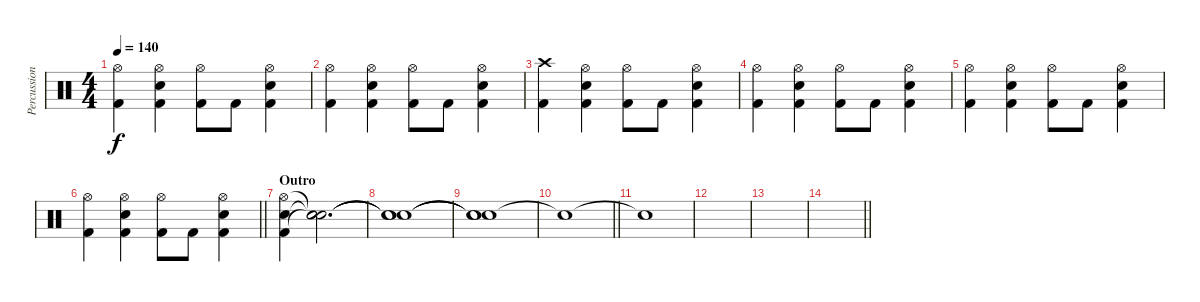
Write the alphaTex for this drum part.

\track ("Percussions" "Percussion") {instrument percussion}
\staff {score}
\articulation defaults
\ts (4 4)
\tempo 140
\clef neutral
\ks c
("Hi-Hat (open)" "Kick (hit) 2").4{dy f} ("Hi-Hat (open)" "Electric Snare (hit)" "Kick (hit) 2").4 ("Hi-Hat (open)" "Kick (hit) 2").8 "Kick (hit) 2".8 ("Hi-Hat (open)" "Electric Snare (hit)" "Kick (hit) 2").4 |
("Hi-Hat (open)" "Kick (hit) 2").4 ("Hi-Hat (open)" "Electric Snare (hit)" "Kick (hit) 2").4 ("Hi-Hat (open)" "Kick (hit) 2").8 "Kick (hit) 2".8 ("Hi-Hat (open)" "Electric Snare (hit)" "Kick (hit) 2").4 |
("Crash high (hit)" "Kick (hit) 2").4 ("Hi-Hat (open)" "Electric Snare (hit)" "Kick (hit) 2").4 ("Hi-Hat (open)" "Kick (hit) 2").8 "Kick (hit) 2".8 ("Hi-Hat (open)" "Electric Snare (hit)" "Kick (hit) 2").4 |
("Hi-Hat (open)" "Kick (hit) 2").4 ("Hi-Hat (open)" "Electric Snare (hit)" "Kick (hit) 2").4 ("Hi-Hat (open)" "Kick (hit) 2").8 "Kick (hit) 2".8 ("Hi-Hat (open)" "Electric Snare (hit)" "Kick (hit) 2").4 |
("Hi-Hat (open)" "Kick (hit) 2").4 ("Hi-Hat (open)" "Electric Snare (hit)" "Kick (hit) 2").4 ("Hi-Hat (open)" "Kick (hit) 2").8 "Kick (hit) 2".8 ("Hi-Hat (open)" "Electric Snare (hit)" "Kick (hit) 2").4 |
\barLineRight lightlight
("Hi-Hat (open)" "Kick (hit) 2").4 ("Hi-Hat (open)" "Electric Snare (hit)" "Kick (hit) 2").4 ("Hi-Hat (open)" "Kick (hit) 2").8 "Kick (hit) 2".8 ("Hi-Hat (open)" "Electric Snare (hit)" "Kick (hit) 2").4 |
\section ("" "Outro")
("Hi-Hat (open)" "Electric Snare (hit)" "Kick (hit) 2").4 ("Snare (hit)"{t} "Snare (hit)"{t} "Snare (hit)"{t}).2{d} |
("Snare (hit)"{t} "Snare (hit)"{t} "Snare (hit)"{t}).1 |
("Snare (hit)"{t} "Snare (hit)"{t} "Snare (hit)"{t}).1 |
\barLineRight lightlight "Snare (hit)"{t}.1
|
"Snare (hit)"{t}.1 |
|
|
\barLineRight lightlight
